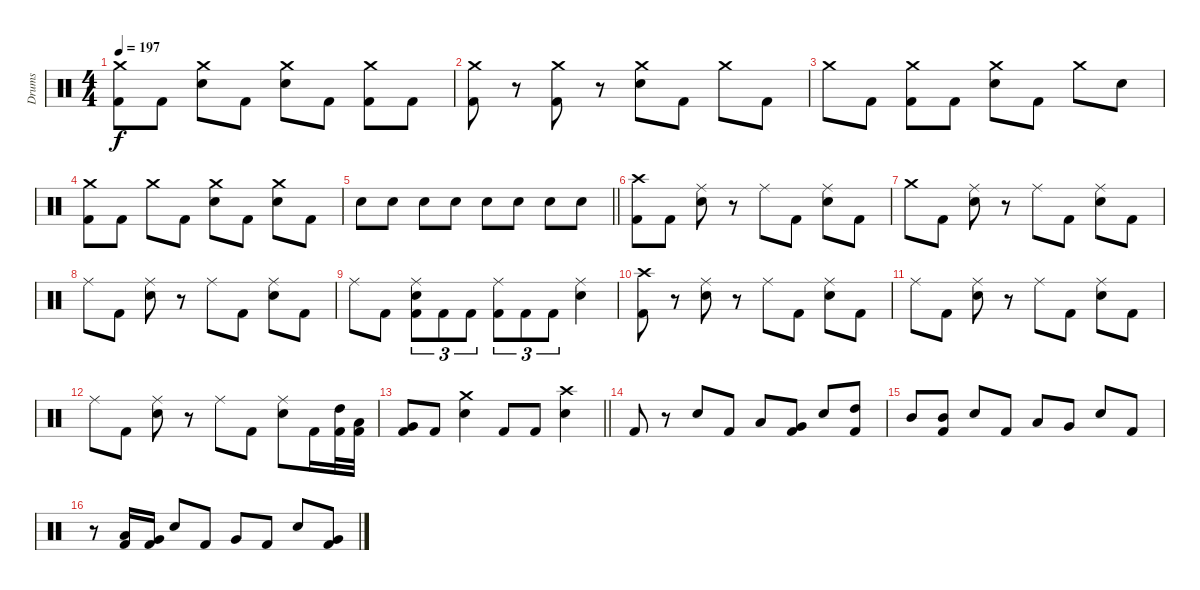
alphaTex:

\track ("Drums" "Drums") {instrument percussion}
\staff {score}
\articulation defaults
\ts (4 4)
\tempo 197
\clef neutral
\ks c
("Crash medium (hit)" "Kick (hit) 2").8{dy f} "Kick (hit) 2".8 ("Crash medium (hit)" "Electric Snare (hit)").8 "Kick (hit) 2".8 ("Crash medium (hit)" "Electric Snare (hit)").8 "Kick (hit) 2".8 ("Crash medium (hit)" "Kick (hit) 2").8 "Kick (hit) 2".8 |
("Crash medium (hit)" "Kick (hit) 2").8 r.8 ("Crash medium (hit)" "Kick (hit) 2").8 r.8 ("Crash medium (hit)" "Electric Snare (hit)").8 "Kick (hit) 2".8 "Crash medium (hit)".8 "Kick (hit) 2".8 |
"Crash medium (hit)".8 "Kick (hit) 2".8 ("Crash medium (hit)" "Kick (hit) 2").8 "Kick (hit) 2".8 ("Crash medium (hit)" "Electric Snare (hit)").8 "Kick (hit) 2".8 "Crash medium (hit)".8 "Electric Snare (hit)".8 |
("Crash medium (hit)" "Kick (hit) 2").8 "Kick (hit) 2".8 "Crash medium (hit)".8 "Kick (hit) 2".8 ("Crash medium (hit)" "Electric Snare (hit)").8 "Kick (hit) 2".8 ("Crash medium (hit)" "Electric Snare (hit)").8 "Kick (hit) 2".8 |
\barLineRight lightlight "Electric Snare (hit)".8 "Electric Snare (hit)".8 "Electric Snare (hit)".8 "Electric Snare (hit)".8 "Electric Snare (hit)".8 "Electric Snare (hit)".8 "Electric Snare (hit)".8 "Electric Snare (hit)".8
|
("Crash high (hit)" "Kick (hit) 2").8 "Kick (hit) 2".8 ("Ride (middle)" "Electric Snare (hit)").8 r.8 "Ride (middle)".8 "Kick (hit) 2".8 ("Ride (middle)" "Electric Snare (hit)").8 "Kick (hit) 2".8 |
"Crash medium (hit)".8 "Kick (hit) 2".8 ("Ride (middle)" "Electric Snare (hit)").8 r.8 "Ride (middle)".8 "Kick (hit) 2".8 ("Ride (middle)" "Electric Snare (hit)").8 "Kick (hit) 2".8 |
"Ride (middle)".8 "Kick (hit) 2".8 ("Ride (middle)" "Electric Snare (hit)").8 r.8 "Ride (middle)".8 "Kick (hit) 2".8 ("Ride (middle)" "Electric Snare (hit)").8 "Kick (hit) 2".8 |
"Ride (middle)".8 "Kick (hit) 2".8 ("Ride (middle)" "Electric Snare (hit)" "Kick (hit) 2").8{tu (3 2)} "Kick (hit) 2".8{tu (3 2)} "Kick (hit) 2".8{tu (3 2)} ("Ride (middle)" "Kick (hit) 2").8{tu (3 2)} "Kick (hit) 2".8{tu (3 2)} "Kick (hit) 2".8{tu (3 2)} ("Ride (middle)" "Electric Snare (hit)").4 |
("Crash high (hit)" "Kick (hit) 2").8 r.8 ("Ride (middle)" "Electric Snare (hit)").8 r.8 "Ride (middle)".8 "Kick (hit) 2".8 ("Ride (middle)" "Electric Snare (hit)").8 "Kick (hit) 2".8 |
"Ride (middle)".8 "Kick (hit) 2".8 ("Ride (middle)" "Electric Snare (hit)").8 r.8 "Ride (middle)".8 "Kick (hit) 2".8 ("Ride (middle)" "Electric Snare (hit)").8 "Kick (hit) 2".8 |
"Ride (middle)".8 "Kick (hit) 2".8 ("Ride (middle)" "Electric Snare (hit)").8 r.8 "Ride (middle)".8 "Kick (hit) 2".8 ("Ride (middle)" "Electric Snare (hit)").8 "Kick (hit) 2".16 ("High Tom (hit)" "Kick (hit) 2").32 ("Low Tom (hit)" "Kick (hit) 2").32 |
\barLineRight lightlight
("Very Low Tom (hit)" "Kick (hit) 2").8 "Kick (hit) 2".8 ("Crash medium (hit)" "Electric Snare (hit)").4 "Kick (hit) 2".8 "Kick (hit) 2".8 ("Crash high (hit)" "Electric Snare (hit)").4 |
"Kick (hit) 2".8 r.8 "Electric Snare (hit)".8 "Kick (hit) 2".8 "Low Tom (hit)".8 ("Very Low Tom (hit)" "Kick (hit) 2").8 "Electric Snare (hit)".8 ("High Tom (hit)" "Kick (hit) 2").8 |
"Mid Tom (hit)".8 ("Mid Tom (hit)" "Kick (hit) 2").8 "Electric Snare (hit)".8 "Kick (hit) 2".8 "Low Tom (hit)".8 "Very Low Tom (hit)".8 "Electric Snare (hit)".8 "Kick (hit) 2".8 |
r.8 ("Low Tom (hit)" "Kick (hit) 2").16 ("Very Low Tom (hit)" "Kick (hit) 2").16 "Electric Snare (hit)".8 "Kick (hit) 2".8 "Very Low Tom (hit)".8 "Kick (hit) 2".8 "Electric Snare (hit)".8 ("Very Low Tom (hit)" "Kick (hit) 2").8
